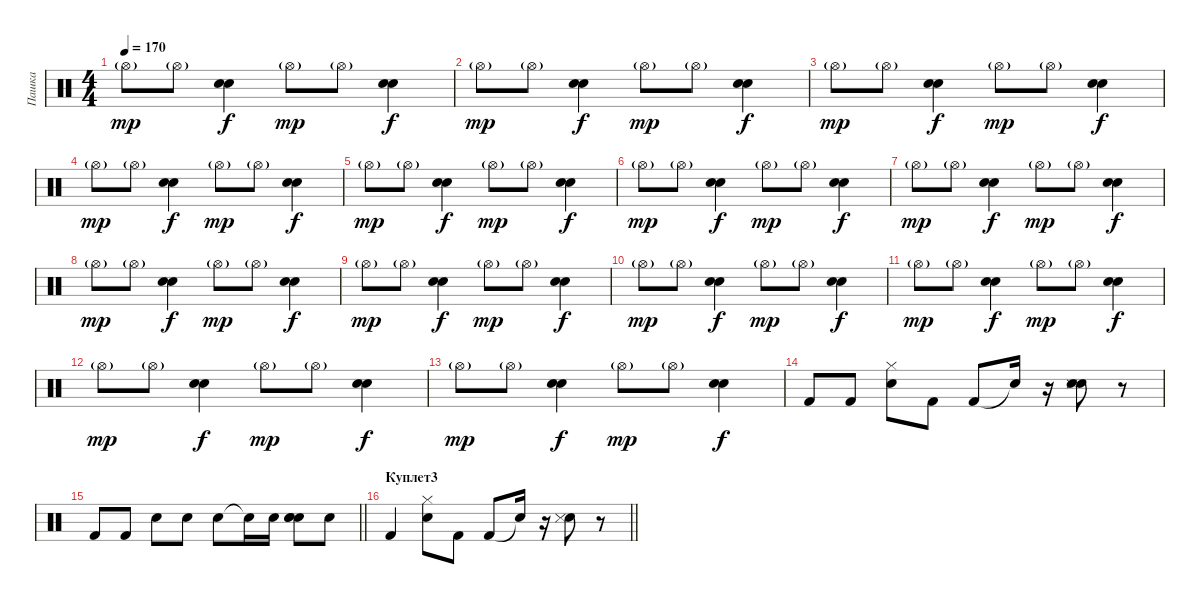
\track ("Пашка" "Пашка") {instrument percussion}
\staff {score}
\articulation defaults
\ts (4 4)
\tempo 170
\clef neutral
\ks c "Hi-Hat (open)"{g}.8{dy mp} "Hi-Hat (open)"{g}.8
("Electric Snare (hit)" "Snare (hit) 2").4{dy f} "Hi-Hat (open)"{g}.8{dy mp} "Hi-Hat (open)"{g}.8 ("Electric Snare (hit)" "Snare (hit) 2").4{dy f} |
"Hi-Hat (open)"{g}.8{dy mp} "Hi-Hat (open)"{g}.8 ("Electric Snare (hit)" "Snare (hit) 2").4{dy f} "Hi-Hat (open)"{g}.8{dy mp} "Hi-Hat (open)"{g}.8 ("Electric Snare (hit)" "Snare (hit) 2").4{dy f} |
"Hi-Hat (open)"{g}.8{dy mp} "Hi-Hat (open)"{g}.8 ("Electric Snare (hit)" "Snare (hit) 2").4{dy f} "Hi-Hat (open)"{g}.8{dy mp} "Hi-Hat (open)"{g}.8 ("Electric Snare (hit)" "Snare (hit) 2").4{dy f} |
"Hi-Hat (open)"{g}.8{dy mp} "Hi-Hat (open)"{g}.8 ("Electric Snare (hit)" "Snare (hit) 2").4{dy f} "Hi-Hat (open)"{g}.8{dy mp} "Hi-Hat (open)"{g}.8 ("Electric Snare (hit)" "Snare (hit) 2").4{dy f} |
"Hi-Hat (open)"{g}.8{dy mp} "Hi-Hat (open)"{g}.8 ("Electric Snare (hit)" "Snare (hit) 2").4{dy f} "Hi-Hat (open)"{g}.8{dy mp} "Hi-Hat (open)"{g}.8 ("Electric Snare (hit)" "Snare (hit) 2").4{dy f} |
"Hi-Hat (open)"{g}.8{dy mp} "Hi-Hat (open)"{g}.8 ("Electric Snare (hit)" "Snare (hit) 2").4{dy f} "Hi-Hat (open)"{g}.8{dy mp} "Hi-Hat (open)"{g}.8 ("Electric Snare (hit)" "Snare (hit) 2").4{dy f} |
"Hi-Hat (open)"{g}.8{dy mp} "Hi-Hat (open)"{g}.8 ("Electric Snare (hit)" "Snare (hit) 2").4{dy f} "Hi-Hat (open)"{g}.8{dy mp} "Hi-Hat (open)"{g}.8 ("Electric Snare (hit)" "Snare (hit) 2").4{dy f} |
"Hi-Hat (open)"{g}.8{dy mp} "Hi-Hat (open)"{g}.8 ("Electric Snare (hit)" "Snare (hit) 2").4{dy f} "Hi-Hat (open)"{g}.8{dy mp} "Hi-Hat (open)"{g}.8 ("Electric Snare (hit)" "Snare (hit) 2").4{dy f} |
"Hi-Hat (open)"{g}.8{dy mp} "Hi-Hat (open)"{g}.8 ("Electric Snare (hit)" "Snare (hit) 2").4{dy f} "Hi-Hat (open)"{g}.8{dy mp} "Hi-Hat (open)"{g}.8 ("Electric Snare (hit)" "Snare (hit) 2").4{dy f} |
"Hi-Hat (open)"{g}.8{dy mp} "Hi-Hat (open)"{g}.8 ("Electric Snare (hit)" "Snare (hit) 2").4{dy f} "Hi-Hat (open)"{g}.8{dy mp} "Hi-Hat (open)"{g}.8 ("Electric Snare (hit)" "Snare (hit) 2").4{dy f} |
"Hi-Hat (open)"{g}.8{dy mp} "Hi-Hat (open)"{g}.8 ("Electric Snare (hit)" "Snare (hit) 2").4{dy f} "Hi-Hat (open)"{g}.8{dy mp} "Hi-Hat (open)"{g}.8 ("Electric Snare (hit)" "Snare (hit) 2").4{dy f} |
"Hi-Hat (open)"{g}.8{dy mp} "Hi-Hat (open)"{g}.8 ("Electric Snare (hit)" "Snare (hit) 2").4{dy f} "Hi-Hat (open)"{g}.8{dy mp} "Hi-Hat (open)"{g}.8 ("Electric Snare (hit)" "Snare (hit) 2").4{dy f} |
"Hi-Hat (open)"{g}.8{dy mp} "Hi-Hat (open)"{g}.8 ("Electric Snare (hit)" "Snare (hit) 2").4{dy f} "Hi-Hat (open)"{g}.8{dy mp} "Hi-Hat (open)"{g}.8 ("Electric Snare (hit)" "Snare (hit) 2").4{dy f} |
"Kick (hit) 2".8 "Kick (hit) 2".8 ("Hi-Hat (closed)" "Snare (hit) 2").8 "Kick (hit) 2".8 "Kick (hit) 2".8 "Snare (hit)"{t}.16 r.16 ("Metronome (bell)" "Snare (side stick) 3" "Electric Snare (hit)").8 r.8 |
\barLineRight lightlight "Kick (hit) 2".8 "Kick (hit) 2".8 "Electric Snare (hit)".8 "Electric Snare (hit)".8 "Electric Snare (hit)".8 "Snare (hit)"{t}.16 "Electric Snare (hit)".16
("Electric Snare (hit)" "Snare (hit) 2" "Electric Snare (hit)").8 "Electric Snare (hit)".8 |
\section ("" "Куплет3")
\barLineRight lightlight "Kick (hit) 2".4
("Hi-Hat (closed)" "Snare (hit) 2").8 "Kick (hit) 2".8 "Kick (hit) 2".8 "Snare (hit)"{t}.16 r.16 ("Metronome (bell)" "Snare (side stick) 3").8 r.8
